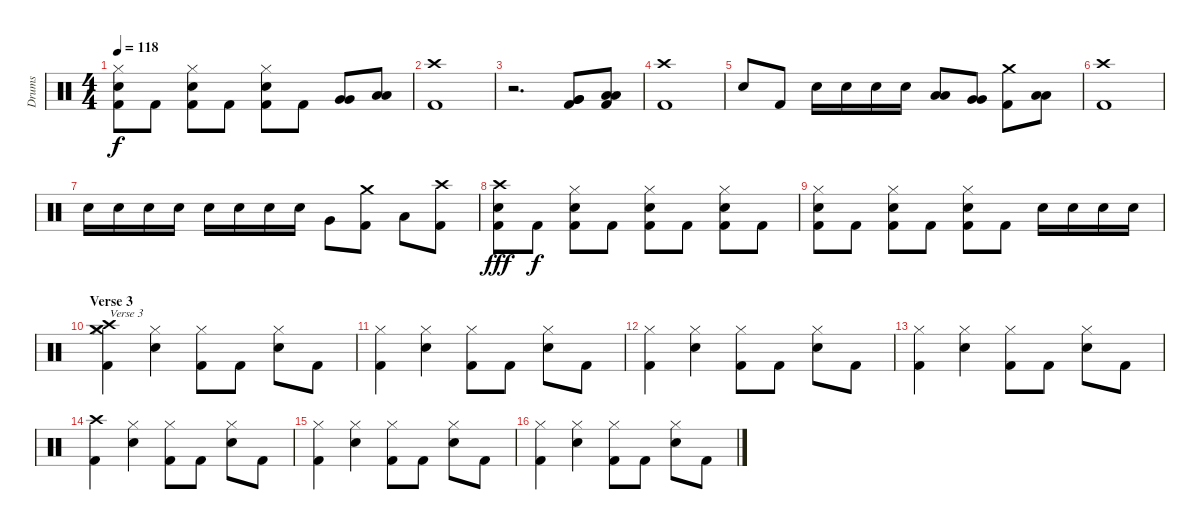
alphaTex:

\track ("Drums" "Drums") {instrument percussion}
\staff {score}
\articulation defaults
\ts (4 4)
\tempo 118
\clef neutral
\ks c
("Hi-Hat (closed)" "Snare (hit) 2" "Kick (hit) 2").8{dy f} "Kick (hit) 2".8 ("Hi-Hat (closed)" "Snare (hit) 2" "Kick (hit) 2").8 "Kick (hit) 2".8 ("Hi-Hat (closed)" "Snare (hit) 2" "Kick (hit) 2").8 "Kick (hit) 2".8 ("Very Low Tom (hit)" "Very Low Tom (hit)").8 ("Low Floor Tom (hit)" "Low Floor Tom (hit)").8 |
("Crash high (hit)" "Kick (hit) 2").1 |
r.2{d} ("Very Low Tom (hit)" "Very Low Tom (hit)" "Kick (hit) 2").8 ("Low Floor Tom (hit)" "Low Floor Tom (hit)" "Kick (hit) 2").8 |
("Crash high (hit)" "Kick (hit) 2").1 |
"Snare (hit) 2".8 "Kick (hit) 2".8 "Snare (hit) 2".16 "Snare (hit) 2".16 "Snare (hit) 2".16 "Snare (hit) 2".16 ("Low Tom (hit)" "Low Tom (hit)").8 ("Very Low Tom (hit)" "Very Low Tom (hit)").8 ("Crash medium (hit)" "Kick (hit) 2").8 ("Low Floor Tom (hit)" "Low Floor Tom (hit)").8 |
("Crash high (hit)" "Kick (hit) 2").1 |
"Snare (hit) 2".16 "Snare (hit) 2".16 "Snare (hit) 2".16 "Snare (hit) 2".16 "Snare (hit) 2".16 "Snare (hit) 2".16 "Snare (hit) 2".16 "Snare (hit) 2".16 "Very Low Tom (hit)".8 ("Crash medium (hit)" "Kick (hit) 2").8 "Low Floor Tom (hit)".8 ("Crash high (hit)" "Kick (hit) 2").8 |
("Crash high (hit)" "Snare (hit) 2" "Kick (hit) 2").8{dy fff} "Kick (hit) 2".8{dy f} ("Hi-Hat (closed)" "Snare (hit) 2" "Kick (hit) 2").8 "Kick (hit) 2".8 ("Hi-Hat (closed)" "Snare (hit) 2" "Kick (hit) 2").8 "Kick (hit) 2".8 ("Hi-Hat (closed)" "Snare (hit) 2" "Kick (hit) 2").8 "Kick (hit) 2".8 |
("Hi-Hat (closed)" "Snare (hit) 2" "Kick (hit) 2").8 "Kick (hit) 2".8 ("Hi-Hat (closed)" "Snare (hit) 2" "Kick (hit) 2").8 "Kick (hit) 2".8 ("Hi-Hat (closed)" "Snare (hit) 2" "Kick (hit) 2").8 "Kick (hit) 2".8 "Snare (hit) 2".16 "Snare (hit) 2".16 "Snare (hit) 2".16 "Snare (hit) 2".16 |
\section ("" "Verse 3")
("Crash high (hit)" "Crash medium (hit)" "Hi-Hat (closed)" "Kick (hit) 2").4{txt "Verse 3"} ("Hi-Hat (closed)" "Snare (hit) 2").4 ("Hi-Hat (closed)" "Kick (hit) 2").8 "Kick (hit) 2".8 ("Hi-Hat (closed)" "Snare (hit) 2").8 "Kick (hit) 2".8 |
("Hi-Hat (closed)" "Kick (hit) 2").4 ("Hi-Hat (closed)" "Snare (hit) 2").4 ("Hi-Hat (closed)" "Kick (hit) 2").8 "Kick (hit) 2".8 ("Hi-Hat (closed)" "Snare (hit) 2").8 "Kick (hit) 2".8 |
("Hi-Hat (closed)" "Kick (hit) 2").4 ("Hi-Hat (closed)" "Snare (hit) 2").4 ("Hi-Hat (closed)" "Kick (hit) 2").8 "Kick (hit) 2".8 ("Hi-Hat (closed)" "Snare (hit) 2").8 "Kick (hit) 2".8 |
("Hi-Hat (closed)" "Kick (hit) 2").4 ("Hi-Hat (closed)" "Snare (hit) 2").4 ("Hi-Hat (closed)" "Kick (hit) 2").8 "Kick (hit) 2".8 ("Hi-Hat (closed)" "Snare (hit) 2").8 "Kick (hit) 2".8 |
("Crash high (hit)" "Kick (hit) 2").4 ("Hi-Hat (closed)" "Snare (hit) 2").4 ("Hi-Hat (closed)" "Kick (hit) 2").8 "Kick (hit) 2".8 ("Hi-Hat (closed)" "Snare (hit) 2").8 "Kick (hit) 2".8 |
("Hi-Hat (closed)" "Kick (hit) 2").4 ("Hi-Hat (closed)" "Snare (hit) 2").4 ("Hi-Hat (closed)" "Kick (hit) 2").8 "Kick (hit) 2".8 ("Hi-Hat (closed)" "Snare (hit) 2").8 "Kick (hit) 2".8 |
("Hi-Hat (closed)" "Kick (hit) 2").4 ("Hi-Hat (closed)" "Snare (hit) 2").4 ("Hi-Hat (closed)" "Kick (hit) 2").8 "Kick (hit) 2".8 ("Hi-Hat (closed)" "Snare (hit) 2").8 "Kick (hit) 2".8
